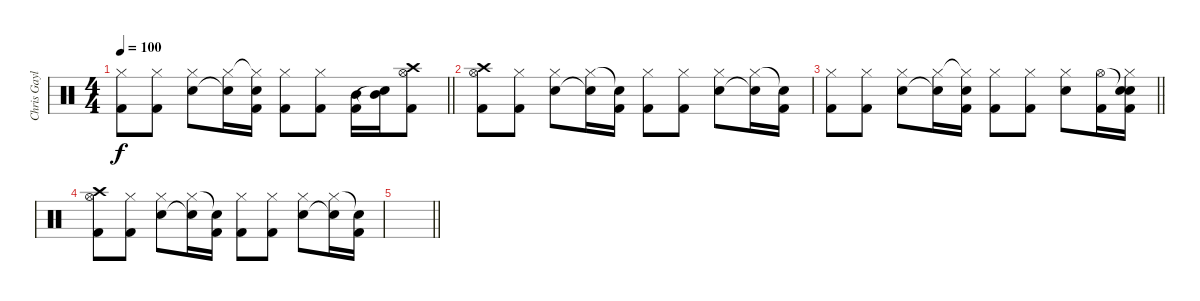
\track ("Chris Gaylor (Drums)" "Chris Gayl") {instrument percussion}
\staff {score}
\articulation defaults
\ts (4 4)
\tempo 100
\clef neutral
\barLineRight lightlight
\ks c
("Hi-Hat (closed)" "Kick (hit) 2").8{dy f} ("Hi-Hat (closed)" "Kick (hit) 2").8 ("Hi-Hat (closed)" "Snare (hit) 2").8 ("Hi-Hat (closed)" "Snare (hit)"{t}).16 ("Hi-Hat (closed)"{t} "Snare (hit) 2" "Kick (hit) 2").16 ("Hi-Hat (closed)" "Kick (hit) 2").8 ("Hi-Hat (closed)" "Kick (hit) 2").8 ("Mid Tom (hit)" "Kick (hit) 2").16 ("Mid Tom (hit)" "Snare (hit)"{t}).16 ("Hi-Hat (open)" "Crash high (hit)" "Kick (hit) 2").8 |
("Hi-Hat (open)" "Crash high (hit)" "Kick (hit) 2").8 ("Hi-Hat (closed)" "Kick (hit) 2").8 ("Hi-Hat (closed)" "Snare (hit) 2").8 ("Hi-Hat (closed)" "Snare (hit)"{t}).16 ("Snare (hit)"{t} "Kick (hit) 2").16 ("Hi-Hat (closed)" "Kick (hit) 2").8 ("Hi-Hat (closed)" "Kick (hit) 2").8 ("Hi-Hat (closed)" "Snare (hit) 2").8 ("Hi-Hat (closed)" "Snare (hit)"{t}).16 ("Snare (hit)"{t} "Kick (hit) 2").16 |
\barLineRight lightlight
("Hi-Hat (closed)" "Kick (hit) 2").8 ("Hi-Hat (closed)" "Kick (hit) 2").8 ("Hi-Hat (closed)" "Snare (hit) 2").8 ("Hi-Hat (closed)" "Snare (hit)"{t}).16 ("Hi-Hat (closed)"{t} "Snare (hit) 2" "Kick (hit) 2").16 ("Hi-Hat (closed)" "Kick (hit) 2").8 ("Hi-Hat (closed)" "Kick (hit) 2").8 ("Hi-Hat (closed)" "Snare (hit) 2").8 ("Hi-Hat (open)" "Kick (hit) 2").16 ("Snare (hit)"{t} "Hi-Hat (closed)" "Snare (hit) 2" "Kick (hit) 2").16 |
("Hi-Hat (open)" "Crash high (hit)" "Kick (hit) 2").8 ("Hi-Hat (closed)" "Kick (hit) 2").8 ("Hi-Hat (closed)" "Snare (hit) 2").8 ("Hi-Hat (closed)" "Snare (hit)"{t}).16 ("Snare (hit)"{t} "Kick (hit) 2").16 ("Hi-Hat (closed)" "Kick (hit) 2").8 ("Hi-Hat (closed)" "Kick (hit) 2").8 ("Hi-Hat (closed)" "Snare (hit) 2").8 ("Hi-Hat (closed)" "Snare (hit)"{t}).16 ("Snare (hit)"{t} "Kick (hit) 2").16 |
\barLineRight lightlight
